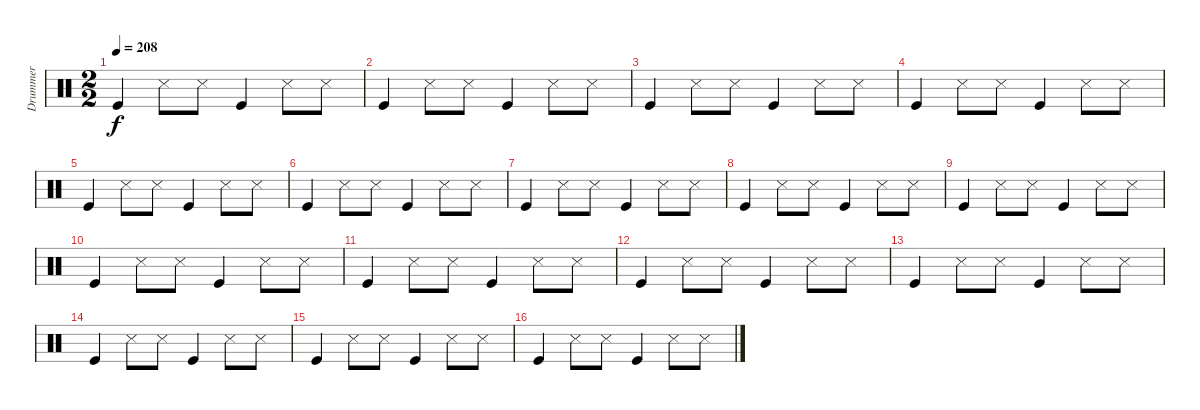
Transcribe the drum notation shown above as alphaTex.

\track ("Drummer" "Drummer") {instrument percussion}
\staff {score}
\articulation defaults
\ts (2 2)
\tempo 208
\clef neutral
\ks c "Kick (hit)".4{dy f} "Snare (side stick) 3".8 "Snare (side stick) 3".8 "Kick (hit)".4 "Snare (side stick) 3".8 "Snare (side stick) 3".8
|
"Kick (hit)".4 "Snare (side stick) 3".8 "Snare (side stick) 3".8 "Kick (hit)".4 "Snare (side stick) 3".8 "Snare (side stick) 3".8 |
"Kick (hit)".4 "Snare (side stick) 3".8 "Snare (side stick) 3".8 "Kick (hit)".4 "Snare (side stick) 3".8 "Snare (side stick) 3".8 |
"Kick (hit)".4 "Snare (side stick) 3".8 "Snare (side stick) 3".8 "Kick (hit)".4 "Snare (side stick) 3".8 "Snare (side stick) 3".8 |
"Kick (hit)".4 "Snare (side stick) 3".8 "Snare (side stick) 3".8 "Kick (hit)".4 "Snare (side stick) 3".8 "Snare (side stick) 3".8 |
"Kick (hit)".4 "Snare (side stick) 3".8 "Snare (side stick) 3".8 "Kick (hit)".4 "Snare (side stick) 3".8 "Snare (side stick) 3".8 |
"Kick (hit)".4 "Snare (side stick) 3".8 "Snare (side stick) 3".8 "Kick (hit)".4 "Snare (side stick) 3".8 "Snare (side stick) 3".8 |
"Kick (hit)".4 "Snare (side stick) 3".8 "Snare (side stick) 3".8 "Kick (hit)".4 "Snare (side stick) 3".8 "Snare (side stick) 3".8 |
"Kick (hit)".4 "Snare (side stick) 3".8 "Snare (side stick) 3".8 "Kick (hit)".4 "Snare (side stick) 3".8 "Snare (side stick) 3".8 |
"Kick (hit)".4 "Snare (side stick) 3".8 "Snare (side stick) 3".8 "Kick (hit)".4 "Snare (side stick) 3".8 "Snare (side stick) 3".8 |
"Kick (hit)".4 "Snare (side stick) 3".8 "Snare (side stick) 3".8 "Kick (hit)".4 "Snare (side stick) 3".8 "Snare (side stick) 3".8 |
"Kick (hit)".4 "Snare (side stick) 3".8 "Snare (side stick) 3".8 "Kick (hit)".4 "Snare (side stick) 3".8 "Snare (side stick) 3".8 |
"Kick (hit)".4 "Snare (side stick) 3".8 "Snare (side stick) 3".8 "Kick (hit)".4 "Snare (side stick) 3".8 "Snare (side stick) 3".8 |
"Kick (hit)".4 "Snare (side stick) 3".8 "Snare (side stick) 3".8 "Kick (hit)".4 "Snare (side stick) 3".8 "Snare (side stick) 3".8 |
"Kick (hit)".4 "Snare (side stick) 3".8 "Snare (side stick) 3".8 "Kick (hit)".4 "Snare (side stick) 3".8 "Snare (side stick) 3".8 |
"Kick (hit)".4 "Snare (side stick) 3".8 "Snare (side stick) 3".8 "Kick (hit)".4 "Snare (side stick) 3".8 "Snare (side stick) 3".8
